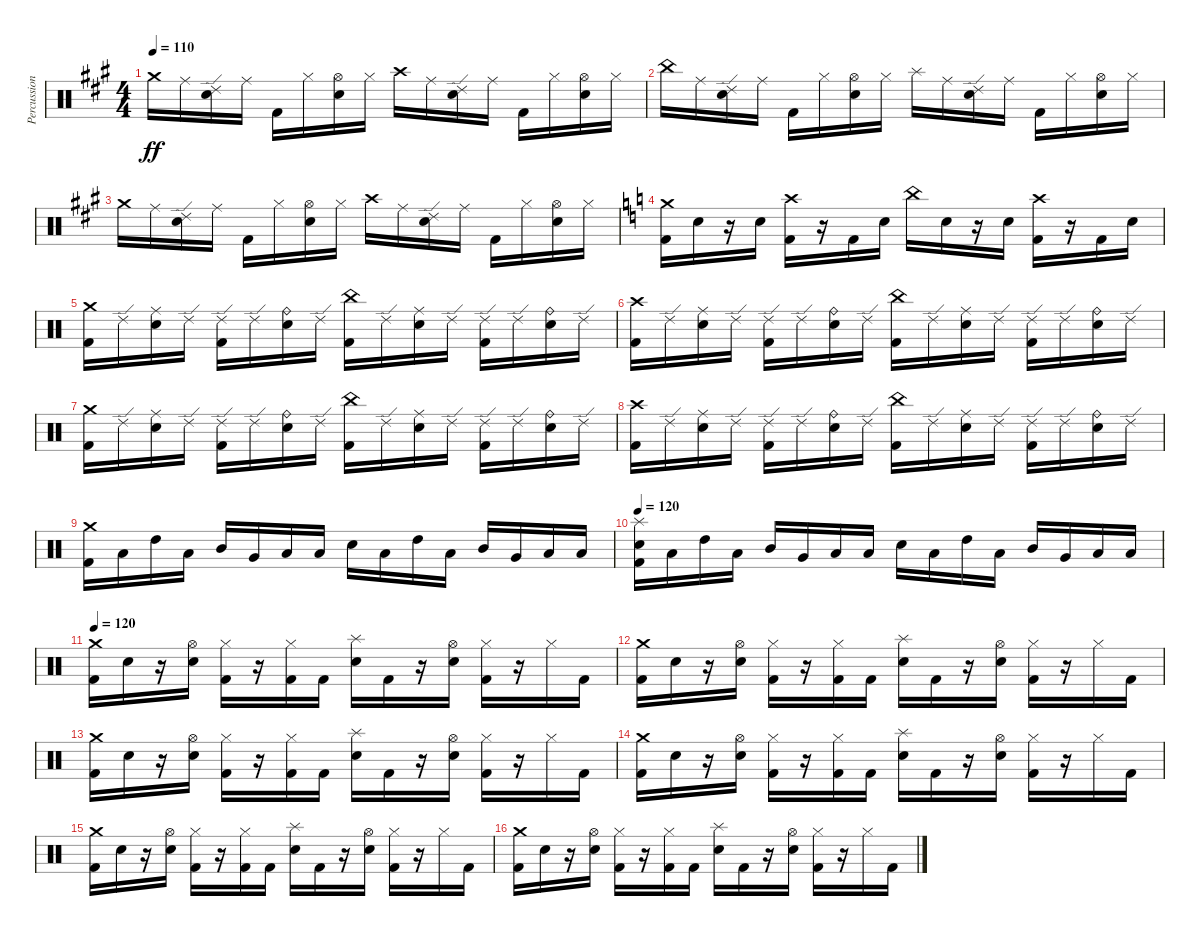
\track ("Percussion" "Percussion") {instrument percussion}
\staff {score}
\articulation defaults
\ts (4 4)
\tempo 110
\clef neutral
\ks a "Crash medium (hit)".16{dy ff} "Ride (middle)".16
("Ride (edge) 2" "Electric Snare (hit)").16 "Ride (middle)".16 "Kick (hit) 2".16 "Hi-Hat (closed)".16 ("Hi-Hat (open)" "Electric Snare (hit)").16 "Hi-Hat (closed)".16 "Crash high (hit)".16 "Ride (middle)".16 ("Ride (edge) 2" "Electric Snare (hit)").16 "Ride (middle)".16 "Kick (hit) 2".16 "Hi-Hat (closed)".16 ("Hi-Hat (open)" "Electric Snare (hit)").16 "Hi-Hat (closed)".16 |
"China (hit)".16 "Ride (middle)".16 ("Ride (edge) 2" "Electric Snare (hit)").16 "Ride (middle)".16 "Kick (hit) 2".16 "Hi-Hat (closed)".16 ("Hi-Hat (open)" "Electric Snare (hit)").16 "Hi-Hat (closed)".16 "Splash (hit)".16 "Ride (middle)".16 ("Ride (edge) 2" "Electric Snare (hit)").16 "Ride (middle)".16 "Kick (hit) 2".16 "Hi-Hat (closed)".16 ("Hi-Hat (open)" "Electric Snare (hit)").16 "Hi-Hat (closed)".16 |
"Crash medium (hit)".16 "Ride (middle)".16 ("Ride (edge) 2" "Electric Snare (hit)").16 "Ride (middle)".16 "Kick (hit) 2".16 "Hi-Hat (closed)".16 ("Hi-Hat (open)" "Electric Snare (hit)").16 "Hi-Hat (closed)".16 "Crash high (hit)".16 "Ride (middle)".16 ("Ride (edge) 2" "Electric Snare (hit)").16 "Ride (middle)".16 "Kick (hit) 2".16 "Hi-Hat (closed)".16 ("Hi-Hat (open)" "Electric Snare (hit)").16 "Hi-Hat (closed)".16 |
\ks c
("Crash medium (hit)" "Kick (hit) 2").16 "Electric Snare (hit)".16 r.16 "Electric Snare (hit)".16 ("Crash high (hit)" "Kick (hit) 2").16 r.16 "Kick (hit) 2".16 "Electric Snare (hit)".16 "China (hit)".16 "Electric Snare (hit)".16 r.16 "Electric Snare (hit)".16 ("Crash high (hit)" "Kick (hit) 2").16 r.16 "Kick (hit) 2".16 "Electric Snare (hit)".16 |
("Crash medium (hit)" "Kick (hit) 2").16 "Ride (edge) 2".16 ("Ride (middle)" "Electric Snare (hit)").16 "Ride (edge) 2".16 ("Ride (edge) 2" "Kick (hit) 2").16 "Ride (edge) 2".16 ("Ride (bell)" "Electric Snare (hit)").16 "Ride (edge) 2".16 ("China (hit)" "Kick (hit) 2").16 "Ride (edge) 2".16 ("Ride (middle)" "Electric Snare (hit)").16 "Ride (edge) 2".16 ("Ride (edge) 2" "Kick (hit) 2").16 "Ride (edge) 2".16 ("Ride (bell)" "Electric Snare (hit)").16 "Ride (edge) 2".16 |
("Crash high (hit)" "Kick (hit) 2").16 "Ride (edge) 2".16 ("Ride (middle)" "Electric Snare (hit)").16 "Ride (edge) 2".16 ("Ride (edge) 2" "Kick (hit) 2").16 "Ride (edge) 2".16 ("Ride (bell)" "Electric Snare (hit)").16 "Ride (edge) 2".16 ("China (hit)" "Kick (hit) 2").16 "Ride (edge) 2".16 ("Ride (middle)" "Electric Snare (hit)").16 "Ride (edge) 2".16 ("Ride (edge) 2" "Kick (hit) 2").16 "Ride (edge) 2".16 ("Ride (bell)" "Electric Snare (hit)").16 "Ride (edge) 2".16 |
("Crash medium (hit)" "Kick (hit) 2").16 "Ride (edge) 2".16 ("Ride (middle)" "Electric Snare (hit)").16 "Ride (edge) 2".16 ("Ride (edge) 2" "Kick (hit) 2").16 "Ride (edge) 2".16 ("Ride (bell)" "Electric Snare (hit)").16 "Ride (edge) 2".16 ("China (hit)" "Kick (hit) 2").16 "Ride (edge) 2".16 ("Ride (middle)" "Electric Snare (hit)").16 "Ride (edge) 2".16 ("Ride (edge) 2" "Kick (hit) 2").16 "Ride (edge) 2".16 ("Ride (bell)" "Electric Snare (hit)").16 "Ride (edge) 2".16 |
("Crash high (hit)" "Kick (hit) 2").16 "Ride (edge) 2".16 ("Ride (middle)" "Electric Snare (hit)").16 "Ride (edge) 2".16 ("Ride (edge) 2" "Kick (hit) 2").16 "Ride (edge) 2".16 ("Ride (bell)" "Electric Snare (hit)").16 "Ride (edge) 2".16 ("China (hit)" "Kick (hit) 2").16 "Ride (edge) 2".16 ("Ride (middle)" "Electric Snare (hit)").16 "Ride (edge) 2".16 ("Ride (edge) 2" "Kick (hit) 2").16 "Ride (edge) 2".16 ("Ride (bell)" "Electric Snare (hit)").16 "Ride (edge) 2".16 |
("Crash medium (hit)" "Kick (hit) 2").16 "Low Tom (hit)".16 "High Tom (hit)".16 "Low Floor Tom (hit)".16 "Mid Tom (hit)".16 "Very Low Tom (hit)".16 "Low Tom (hit)".16 "Low Floor Tom (hit)".16 "Electric Snare (hit)".16 "Low Tom (hit)".16 "High Tom (hit)".16 "Low Floor Tom (hit)".16 "Mid Tom (hit)".16 "Very Low Tom (hit)".16 "Low Tom (hit)".16 "Low Floor Tom (hit)".16 |
\tempo 120
("Splash (hit)" "Electric Snare (hit)" "Kick (hit) 2").16 "Low Tom (hit)".16 "High Tom (hit)".16 "Low Floor Tom (hit)".16 "Mid Tom (hit)".16 "Very Low Tom (hit)".16 "Low Tom (hit)".16 "Low Floor Tom (hit)".16 "Electric Snare (hit)".16 "Low Tom (hit)".16 "High Tom (hit)".16 "Low Floor Tom (hit)".16 "Mid Tom (hit)".16 "Very Low Tom (hit)".16 "Low Tom (hit)".16 "Low Floor Tom (hit)".16 |
\tempo 120
("Crash medium (hit)" "Kick (hit) 2").16 "Electric Snare (hit)".16 r.16 ("Hi-Hat (open)" "Electric Snare (hit)").16 ("Hi-Hat (closed)" "Kick (hit) 2").16 r.16 ("Hi-Hat (closed)" "Kick (hit) 2").16 "Kick (hit) 2".16 ("Splash (hit)" "Electric Snare (hit)").16 "Kick (hit) 2".16 r.16 ("Hi-Hat (open)" "Electric Snare (hit)").16 ("Hi-Hat (closed)" "Kick (hit) 2").16 r.16 "Hi-Hat (closed)".16 "Kick (hit) 2".16 |
("Crash medium (hit)" "Kick (hit) 2").16 "Electric Snare (hit)".16 r.16 ("Hi-Hat (open)" "Electric Snare (hit)").16 ("Hi-Hat (closed)" "Kick (hit) 2").16 r.16 ("Hi-Hat (closed)" "Kick (hit) 2").16 "Kick (hit) 2".16 ("Splash (hit)" "Electric Snare (hit)").16 "Kick (hit) 2".16 r.16 ("Hi-Hat (open)" "Electric Snare (hit)").16 ("Hi-Hat (closed)" "Kick (hit) 2").16 r.16 "Hi-Hat (closed)".16 "Kick (hit) 2".16 |
("Crash medium (hit)" "Kick (hit) 2").16 "Electric Snare (hit)".16 r.16 ("Hi-Hat (open)" "Electric Snare (hit)").16 ("Hi-Hat (closed)" "Kick (hit) 2").16 r.16 ("Hi-Hat (closed)" "Kick (hit) 2").16 "Kick (hit) 2".16 ("Splash (hit)" "Electric Snare (hit)").16 "Kick (hit) 2".16 r.16 ("Hi-Hat (open)" "Electric Snare (hit)").16 ("Hi-Hat (closed)" "Kick (hit) 2").16 r.16 "Hi-Hat (closed)".16 "Kick (hit) 2".16 |
("Crash medium (hit)" "Kick (hit) 2").16 "Electric Snare (hit)".16 r.16 ("Hi-Hat (open)" "Electric Snare (hit)").16 ("Hi-Hat (closed)" "Kick (hit) 2").16 r.16 ("Hi-Hat (closed)" "Kick (hit) 2").16 "Kick (hit) 2".16 ("Splash (hit)" "Electric Snare (hit)").16 "Kick (hit) 2".16 r.16 ("Hi-Hat (open)" "Electric Snare (hit)").16 ("Hi-Hat (closed)" "Kick (hit) 2").16 r.16 "Hi-Hat (closed)".16 "Kick (hit) 2".16 |
("Crash medium (hit)" "Kick (hit) 2").16 "Electric Snare (hit)".16 r.16 ("Hi-Hat (open)" "Electric Snare (hit)").16 ("Hi-Hat (closed)" "Kick (hit) 2").16 r.16 ("Hi-Hat (closed)" "Kick (hit) 2").16 "Kick (hit) 2".16 ("Splash (hit)" "Electric Snare (hit)").16 "Kick (hit) 2".16 r.16 ("Hi-Hat (open)" "Electric Snare (hit)").16 ("Hi-Hat (closed)" "Kick (hit) 2").16 r.16 "Hi-Hat (closed)".16 "Kick (hit) 2".16 |
("Crash medium (hit)" "Kick (hit) 2").16 "Electric Snare (hit)".16 r.16 ("Hi-Hat (open)" "Electric Snare (hit)").16 ("Hi-Hat (closed)" "Kick (hit) 2").16 r.16 ("Hi-Hat (closed)" "Kick (hit) 2").16 "Kick (hit) 2".16 ("Splash (hit)" "Electric Snare (hit)").16 "Kick (hit) 2".16 r.16 ("Hi-Hat (open)" "Electric Snare (hit)").16 ("Hi-Hat (closed)" "Kick (hit) 2").16 r.16 "Hi-Hat (closed)".16 "Kick (hit) 2".16
